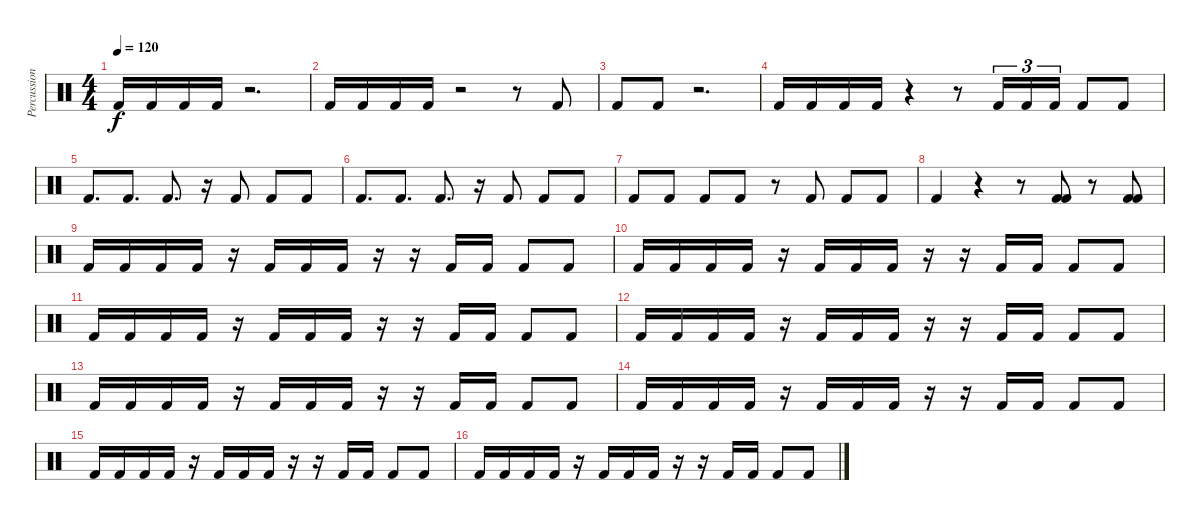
\track ("Percussion" "Percussion") {instrument percussion}
\staff {score}
\articulation defaults
\ts (4 4)
\tempo 120
\clef neutral
\ks c "Kick (hit) 2".16{dy f} "Kick (hit) 2".16 "Kick (hit) 2".16 "Kick (hit) 2".16
r.2{d} |
"Kick (hit) 2".16 "Kick (hit) 2".16 "Kick (hit) 2".16 "Kick (hit) 2".16 r.2 r.8 "Kick (hit) 2".8 |
"Kick (hit) 2".8 "Kick (hit) 2".8 r.2{d} |
"Kick (hit) 2".16 "Kick (hit) 2".16 "Kick (hit) 2".16 "Kick (hit) 2".16 r.4 r.8 "Kick (hit) 2".16{tu (3 2)} "Kick (hit) 2".16{tu (3 2)} "Kick (hit) 2".16{tu (3 2)} "Kick (hit) 2".8 "Kick (hit) 2".8 |
"Kick (hit) 2".8{d} "Kick (hit) 2".8{d} "Kick (hit) 2".8{d} r.16 "Kick (hit) 2".8 "Kick (hit) 2".8 "Kick (hit) 2".8 |
"Kick (hit) 2".8{d} "Kick (hit) 2".8{d} "Kick (hit) 2".8{d} r.16 "Kick (hit) 2".8 "Kick (hit) 2".8 "Kick (hit) 2".8 |
"Kick (hit) 2".8 "Kick (hit) 2".8 "Kick (hit) 2".8 "Kick (hit) 2".8 r.8 "Kick (hit) 2".8 "Kick (hit) 2".8 "Kick (hit) 2".8 |
"Kick (hit) 2".4 r.4 r.8 ("Kick (hit) 2" "Kick (hit) 2").8 r.8 ("Kick (hit) 2" "Kick (hit) 2").8 |
"Kick (hit) 2".16 "Kick (hit) 2".16 "Kick (hit) 2".16 "Kick (hit) 2".16 r.16 "Kick (hit) 2".16 "Kick (hit) 2".16 "Kick (hit) 2".16 r.16 r.16 "Kick (hit) 2".16 "Kick (hit) 2".16 "Kick (hit) 2".8 "Kick (hit) 2".8 |
"Kick (hit) 2".16 "Kick (hit) 2".16 "Kick (hit) 2".16 "Kick (hit) 2".16 r.16 "Kick (hit) 2".16 "Kick (hit) 2".16 "Kick (hit) 2".16 r.16 r.16 "Kick (hit) 2".16 "Kick (hit) 2".16 "Kick (hit) 2".8 "Kick (hit) 2".8 |
"Kick (hit) 2".16 "Kick (hit) 2".16 "Kick (hit) 2".16 "Kick (hit) 2".16 r.16 "Kick (hit) 2".16 "Kick (hit) 2".16 "Kick (hit) 2".16 r.16 r.16 "Kick (hit) 2".16 "Kick (hit) 2".16 "Kick (hit) 2".8 "Kick (hit) 2".8 |
"Kick (hit) 2".16 "Kick (hit) 2".16 "Kick (hit) 2".16 "Kick (hit) 2".16 r.16 "Kick (hit) 2".16 "Kick (hit) 2".16 "Kick (hit) 2".16 r.16 r.16 "Kick (hit) 2".16 "Kick (hit) 2".16 "Kick (hit) 2".8 "Kick (hit) 2".8 |
"Kick (hit) 2".16 "Kick (hit) 2".16 "Kick (hit) 2".16 "Kick (hit) 2".16 r.16 "Kick (hit) 2".16 "Kick (hit) 2".16 "Kick (hit) 2".16 r.16 r.16 "Kick (hit) 2".16 "Kick (hit) 2".16 "Kick (hit) 2".8 "Kick (hit) 2".8 |
"Kick (hit) 2".16 "Kick (hit) 2".16 "Kick (hit) 2".16 "Kick (hit) 2".16 r.16 "Kick (hit) 2".16 "Kick (hit) 2".16 "Kick (hit) 2".16 r.16 r.16 "Kick (hit) 2".16 "Kick (hit) 2".16 "Kick (hit) 2".8 "Kick (hit) 2".8 |
"Kick (hit) 2".16 "Kick (hit) 2".16 "Kick (hit) 2".16 "Kick (hit) 2".16 r.16 "Kick (hit) 2".16 "Kick (hit) 2".16 "Kick (hit) 2".16 r.16 r.16 "Kick (hit) 2".16 "Kick (hit) 2".16 "Kick (hit) 2".8 "Kick (hit) 2".8 |
"Kick (hit) 2".16 "Kick (hit) 2".16 "Kick (hit) 2".16 "Kick (hit) 2".16 r.16 "Kick (hit) 2".16 "Kick (hit) 2".16 "Kick (hit) 2".16 r.16 r.16 "Kick (hit) 2".16 "Kick (hit) 2".16 "Kick (hit) 2".8 "Kick (hit) 2".8
